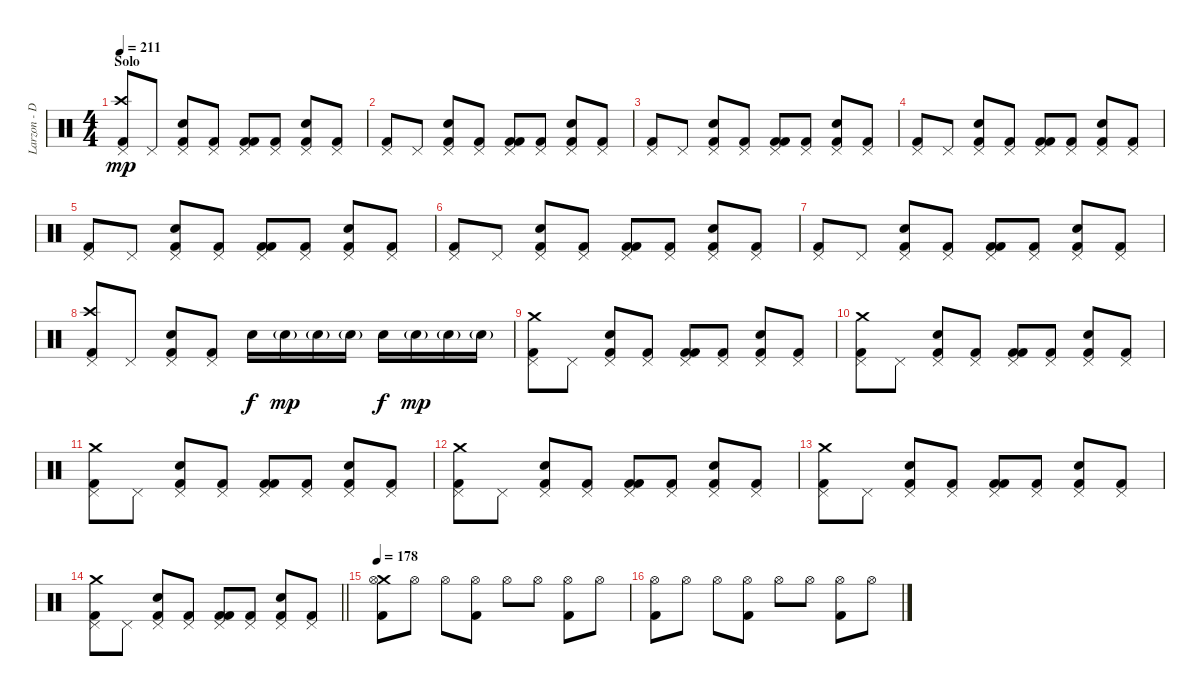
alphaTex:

\track ("Larzon - Drums" "Larzon - D") {instrument percussion}
\staff {score}
\articulation defaults
\ts (4 4)
\section ("" "Solo")
\tempo 211
\clef neutral
\ks c
("Kick (hit) 2" "Crash high (hit)" "Pedal Hi-Hat (hit)").8{dy mp} "Pedal Hi-Hat (hit)".8 ("Snare (hit) 2" "Kick (hit) 2" "Pedal Hi-Hat (hit)").8 ("Kick (hit) 2" "Pedal Hi-Hat (hit)").8 ("Kick (hit) 2" "Kick (hit) 2" "Pedal Hi-Hat (hit)").8 ("Kick (hit) 2" "Pedal Hi-Hat (hit)").8 ("Snare (hit) 2" "Kick (hit) 2" "Pedal Hi-Hat (hit)").8 ("Kick (hit) 2" "Pedal Hi-Hat (hit)").8 |
("Kick (hit) 2" "Pedal Hi-Hat (hit)").8 "Pedal Hi-Hat (hit)".8 ("Snare (hit) 2" "Kick (hit) 2" "Pedal Hi-Hat (hit)").8 ("Kick (hit) 2" "Pedal Hi-Hat (hit)").8 ("Kick (hit) 2" "Kick (hit) 2" "Pedal Hi-Hat (hit)").8 ("Kick (hit) 2" "Pedal Hi-Hat (hit)").8 ("Snare (hit) 2" "Kick (hit) 2" "Pedal Hi-Hat (hit)").8 ("Kick (hit) 2" "Pedal Hi-Hat (hit)").8 |
("Kick (hit) 2" "Pedal Hi-Hat (hit)").8 "Pedal Hi-Hat (hit)".8 ("Snare (hit) 2" "Kick (hit) 2" "Pedal Hi-Hat (hit)").8 ("Kick (hit) 2" "Pedal Hi-Hat (hit)").8 ("Kick (hit) 2" "Kick (hit) 2" "Pedal Hi-Hat (hit)").8 ("Kick (hit) 2" "Pedal Hi-Hat (hit)").8 ("Snare (hit) 2" "Kick (hit) 2" "Pedal Hi-Hat (hit)").8 ("Kick (hit) 2" "Pedal Hi-Hat (hit)").8 |
("Kick (hit) 2" "Pedal Hi-Hat (hit)").8 "Pedal Hi-Hat (hit)".8 ("Snare (hit) 2" "Kick (hit) 2" "Pedal Hi-Hat (hit)").8 ("Kick (hit) 2" "Pedal Hi-Hat (hit)").8 ("Kick (hit) 2" "Kick (hit) 2" "Pedal Hi-Hat (hit)").8 ("Kick (hit) 2" "Pedal Hi-Hat (hit)").8 ("Snare (hit) 2" "Kick (hit) 2" "Pedal Hi-Hat (hit)").8 ("Kick (hit) 2" "Pedal Hi-Hat (hit)").8 |
("Kick (hit) 2" "Pedal Hi-Hat (hit)").8 "Pedal Hi-Hat (hit)".8 ("Snare (hit) 2" "Kick (hit) 2" "Pedal Hi-Hat (hit)").8 ("Kick (hit) 2" "Pedal Hi-Hat (hit)").8 ("Kick (hit) 2" "Kick (hit) 2" "Pedal Hi-Hat (hit)").8 ("Kick (hit) 2" "Pedal Hi-Hat (hit)").8 ("Snare (hit) 2" "Kick (hit) 2" "Pedal Hi-Hat (hit)").8 ("Kick (hit) 2" "Pedal Hi-Hat (hit)").8 |
("Kick (hit) 2" "Pedal Hi-Hat (hit)").8 "Pedal Hi-Hat (hit)".8 ("Snare (hit) 2" "Kick (hit) 2" "Pedal Hi-Hat (hit)").8 ("Kick (hit) 2" "Pedal Hi-Hat (hit)").8 ("Kick (hit) 2" "Kick (hit) 2" "Pedal Hi-Hat (hit)").8 ("Kick (hit) 2" "Pedal Hi-Hat (hit)").8 ("Snare (hit) 2" "Kick (hit) 2" "Pedal Hi-Hat (hit)").8 ("Kick (hit) 2" "Pedal Hi-Hat (hit)").8 |
("Kick (hit) 2" "Pedal Hi-Hat (hit)").8 "Pedal Hi-Hat (hit)".8 ("Snare (hit) 2" "Kick (hit) 2" "Pedal Hi-Hat (hit)").8 ("Kick (hit) 2" "Pedal Hi-Hat (hit)").8 ("Kick (hit) 2" "Kick (hit) 2" "Pedal Hi-Hat (hit)").8 ("Kick (hit) 2" "Pedal Hi-Hat (hit)").8 ("Snare (hit) 2" "Kick (hit) 2" "Pedal Hi-Hat (hit)").8 ("Kick (hit) 2" "Pedal Hi-Hat (hit)").8 |
("Kick (hit) 2" "Crash high (hit)" "Pedal Hi-Hat (hit)").8 "Pedal Hi-Hat (hit)".8 ("Snare (hit) 2" "Kick (hit) 2" "Pedal Hi-Hat (hit)").8 ("Kick (hit) 2" "Pedal Hi-Hat (hit)").8 "Snare (hit) 2".16{dy f} "Snare (hit) 2"{g}.16{dy mp} "Snare (hit) 2"{g}.16 "Snare (hit) 2"{g}.16 "Snare (hit) 2".16{dy f} "Snare (hit) 2"{g}.16{dy mp} "Snare (hit) 2"{g}.16 "Snare (hit) 2"{g}.16 |
("Kick (hit) 2" "Crash medium (hit)" "Pedal Hi-Hat (hit)").8 "Pedal Hi-Hat (hit)".8 ("Snare (hit) 2" "Kick (hit) 2" "Pedal Hi-Hat (hit)").8 ("Kick (hit) 2" "Pedal Hi-Hat (hit)").8 ("Kick (hit) 2" "Kick (hit) 2" "Pedal Hi-Hat (hit)").8 ("Kick (hit) 2" "Pedal Hi-Hat (hit)").8 ("Snare (hit) 2" "Kick (hit) 2" "Pedal Hi-Hat (hit)").8 ("Kick (hit) 2" "Pedal Hi-Hat (hit)").8 |
("Kick (hit) 2" "Crash medium (hit)" "Pedal Hi-Hat (hit)").8 "Pedal Hi-Hat (hit)".8 ("Snare (hit) 2" "Kick (hit) 2" "Pedal Hi-Hat (hit)").8 ("Kick (hit) 2" "Pedal Hi-Hat (hit)").8 ("Kick (hit) 2" "Kick (hit) 2" "Pedal Hi-Hat (hit)").8 ("Kick (hit) 2" "Pedal Hi-Hat (hit)").8 ("Snare (hit) 2" "Kick (hit) 2" "Pedal Hi-Hat (hit)").8 ("Kick (hit) 2" "Pedal Hi-Hat (hit)").8 |
("Kick (hit) 2" "Crash medium (hit)" "Pedal Hi-Hat (hit)").8 "Pedal Hi-Hat (hit)".8 ("Snare (hit) 2" "Kick (hit) 2" "Pedal Hi-Hat (hit)").8 ("Kick (hit) 2" "Pedal Hi-Hat (hit)").8 ("Kick (hit) 2" "Kick (hit) 2" "Pedal Hi-Hat (hit)").8 ("Kick (hit) 2" "Pedal Hi-Hat (hit)").8 ("Snare (hit) 2" "Kick (hit) 2" "Pedal Hi-Hat (hit)").8 ("Kick (hit) 2" "Pedal Hi-Hat (hit)").8 |
("Kick (hit) 2" "Crash medium (hit)" "Pedal Hi-Hat (hit)").8 "Pedal Hi-Hat (hit)".8 ("Snare (hit) 2" "Kick (hit) 2" "Pedal Hi-Hat (hit)").8 ("Kick (hit) 2" "Pedal Hi-Hat (hit)").8 ("Kick (hit) 2" "Kick (hit) 2" "Pedal Hi-Hat (hit)").8 ("Kick (hit) 2" "Pedal Hi-Hat (hit)").8 ("Snare (hit) 2" "Kick (hit) 2" "Pedal Hi-Hat (hit)").8 ("Kick (hit) 2" "Pedal Hi-Hat (hit)").8 |
("Kick (hit) 2" "Crash medium (hit)" "Pedal Hi-Hat (hit)").8 "Pedal Hi-Hat (hit)".8 ("Snare (hit) 2" "Kick (hit) 2" "Pedal Hi-Hat (hit)").8 ("Kick (hit) 2" "Pedal Hi-Hat (hit)").8 ("Kick (hit) 2" "Kick (hit) 2" "Pedal Hi-Hat (hit)").8 ("Kick (hit) 2" "Pedal Hi-Hat (hit)").8 ("Snare (hit) 2" "Kick (hit) 2" "Pedal Hi-Hat (hit)").8 ("Kick (hit) 2" "Pedal Hi-Hat (hit)").8 |
\barLineRight lightlight
("Kick (hit) 2" "Crash medium (hit)" "Pedal Hi-Hat (hit)").8 "Pedal Hi-Hat (hit)".8 ("Snare (hit) 2" "Kick (hit) 2" "Pedal Hi-Hat (hit)").8 ("Kick (hit) 2" "Pedal Hi-Hat (hit)").8 ("Kick (hit) 2" "Kick (hit) 2" "Pedal Hi-Hat (hit)").8 ("Kick (hit) 2" "Pedal Hi-Hat (hit)").8 ("Snare (hit) 2" "Kick (hit) 2" "Pedal Hi-Hat (hit)").8 ("Kick (hit) 2" "Pedal Hi-Hat (hit)").8 |
\section ("" "")
\tempo 178
("Kick (hit) 2" "Crash medium (hit)" "Hi-Hat (open)").8 "Hi-Hat (open)".8 "Hi-Hat (open)".8 ("Kick (hit) 2" "Hi-Hat (open)").8 "Hi-Hat (open)".8 "Hi-Hat (open)".8 ("Kick (hit) 2" "Hi-Hat (open)").8 "Hi-Hat (open)".8 |
("Kick (hit) 2" "Hi-Hat (open)").8 "Hi-Hat (open)".8 "Hi-Hat (open)".8 ("Kick (hit) 2" "Hi-Hat (open)").8 "Hi-Hat (open)".8 "Hi-Hat (open)".8 ("Kick (hit) 2" "Hi-Hat (open)").8 "Hi-Hat (open)".8
